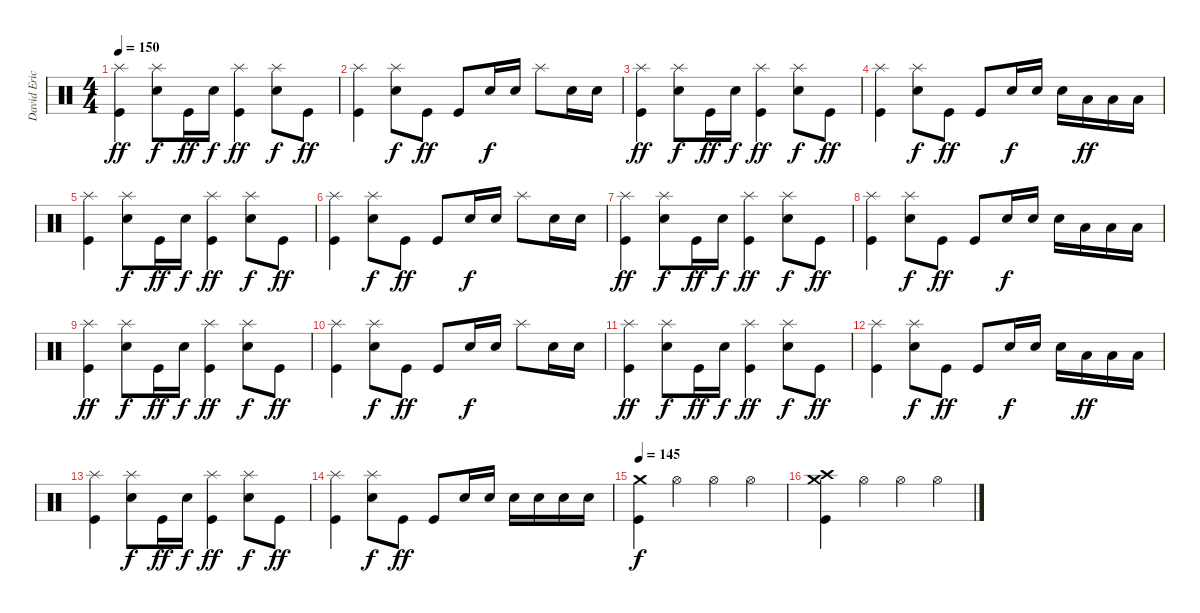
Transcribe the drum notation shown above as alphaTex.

\track ("David Eric Grohl" "David Eric") {instrument percussion}
\staff {score}
\articulation defaults
\ts (4 4)
\tempo 150
\clef neutral
\ks c
("Splash (hit)" "Kick (hit)").4{dy ff} ("Splash (hit)" "Snare (hit) 2").8{dy f} "Kick (hit)".16{dy ff} "Snare (hit) 2".16{dy f} ("Splash (hit)" "Kick (hit)").4{dy ff} ("Splash (hit)" "Snare (hit) 2").8{dy f} "Kick (hit)".8{dy ff} |
("Splash (hit)" "Kick (hit)").4 ("Splash (hit)" "Snare (hit) 2").8{dy f} "Kick (hit)".8{dy ff} "Kick (hit)".8 "Snare (hit) 2".16{dy f} "Snare (hit) 2".16 "Splash (hit)".8 "Snare (hit) 2".16 "Snare (hit) 2".16 |
("Splash (hit)" "Kick (hit)").4{dy ff} ("Splash (hit)" "Snare (hit) 2").8{dy f} "Kick (hit)".16{dy ff} "Snare (hit) 2".16{dy f} ("Splash (hit)" "Kick (hit)").4{dy ff} ("Splash (hit)" "Snare (hit) 2").8{dy f} "Kick (hit)".8{dy ff} |
("Splash (hit)" "Kick (hit)").4 ("Splash (hit)" "Snare (hit) 2").8{dy f} "Kick (hit)".8{dy ff} "Kick (hit)".8 "Snare (hit) 2".16{dy f} "Snare (hit) 2".16 "Snare (hit) 2".16 "Low Tom (hit)".16{dy ff} "Low Tom (hit)".16 "Low Tom (hit)".16 |
("Splash (hit)" "Kick (hit)").4 ("Splash (hit)" "Snare (hit) 2").8{dy f} "Kick (hit)".16{dy ff} "Snare (hit) 2".16{dy f} ("Splash (hit)" "Kick (hit)").4{dy ff} ("Splash (hit)" "Snare (hit) 2").8{dy f} "Kick (hit)".8{dy ff} |
("Splash (hit)" "Kick (hit)").4 ("Splash (hit)" "Snare (hit) 2").8{dy f} "Kick (hit)".8{dy ff} "Kick (hit)".8 "Snare (hit) 2".16{dy f} "Snare (hit) 2".16 "Splash (hit)".8 "Snare (hit) 2".16 "Snare (hit) 2".16 |
("Splash (hit)" "Kick (hit)").4{dy ff} ("Splash (hit)" "Snare (hit) 2").8{dy f} "Kick (hit)".16{dy ff} "Snare (hit) 2".16{dy f} ("Splash (hit)" "Kick (hit)").4{dy ff} ("Splash (hit)" "Snare (hit) 2").8{dy f} "Kick (hit)".8{dy ff} |
("Splash (hit)" "Kick (hit)").4 ("Splash (hit)" "Snare (hit) 2").8{dy f} "Kick (hit)".8{dy ff} "Kick (hit)".8 "Snare (hit) 2".16{dy f} "Snare (hit) 2".16 "Snare (hit) 2".16 "Low Tom (hit)".16 "Low Tom (hit)".16 "Low Tom (hit)".16 |
("Splash (hit)" "Kick (hit)").4{dy ff} ("Splash (hit)" "Snare (hit) 2").8{dy f} "Kick (hit)".16{dy ff} "Snare (hit) 2".16{dy f} ("Splash (hit)" "Kick (hit)").4{dy ff} ("Splash (hit)" "Snare (hit) 2").8{dy f} "Kick (hit)".8{dy ff} |
("Splash (hit)" "Kick (hit)").4 ("Splash (hit)" "Snare (hit) 2").8{dy f} "Kick (hit)".8{dy ff} "Kick (hit)".8 "Snare (hit) 2".16{dy f} "Snare (hit) 2".16 "Splash (hit)".8 "Snare (hit) 2".16 "Snare (hit) 2".16 |
("Splash (hit)" "Kick (hit)").4{dy ff} ("Splash (hit)" "Snare (hit) 2").8{dy f} "Kick (hit)".16{dy ff} "Snare (hit) 2".16{dy f} ("Splash (hit)" "Kick (hit)").4{dy ff} ("Splash (hit)" "Snare (hit) 2").8{dy f} "Kick (hit)".8{dy ff} |
("Splash (hit)" "Kick (hit)").4 ("Splash (hit)" "Snare (hit) 2").8{dy f} "Kick (hit)".8{dy ff} "Kick (hit)".8 "Snare (hit) 2".16{dy f} "Snare (hit) 2".16 "Snare (hit) 2".16 "Low Tom (hit)".16{dy ff} "Low Tom (hit)".16 "Low Tom (hit)".16 |
("Splash (hit)" "Kick (hit)").4 ("Splash (hit)" "Snare (hit) 2").8{dy f} "Kick (hit)".16{dy ff} "Snare (hit) 2".16{dy f} ("Splash (hit)" "Kick (hit)").4{dy ff} ("Splash (hit)" "Snare (hit) 2").8{dy f} "Kick (hit)".8{dy ff} |
("Splash (hit)" "Kick (hit)").4 ("Splash (hit)" "Snare (hit) 2").8{dy f} "Kick (hit)".8{dy ff} "Kick (hit)".8 "Snare (hit) 2".16 "Snare (hit) 2".16 "Snare (hit) 2".16 "Snare (hit) 2".16 "Snare (hit) 2".16 "Snare (hit) 2".16 |
\tempo 145
("Crash medium (hit)" "Kick (hit)").4{dy f} "Hi-Hat (open)".4 "Hi-Hat (open)".4 "Hi-Hat (open)".4 |
("Crash medium (hit)" "Crash high (hit)" "Kick (hit)").4 "Hi-Hat (open)".4 "Hi-Hat (open)".4 "Hi-Hat (open)".4
